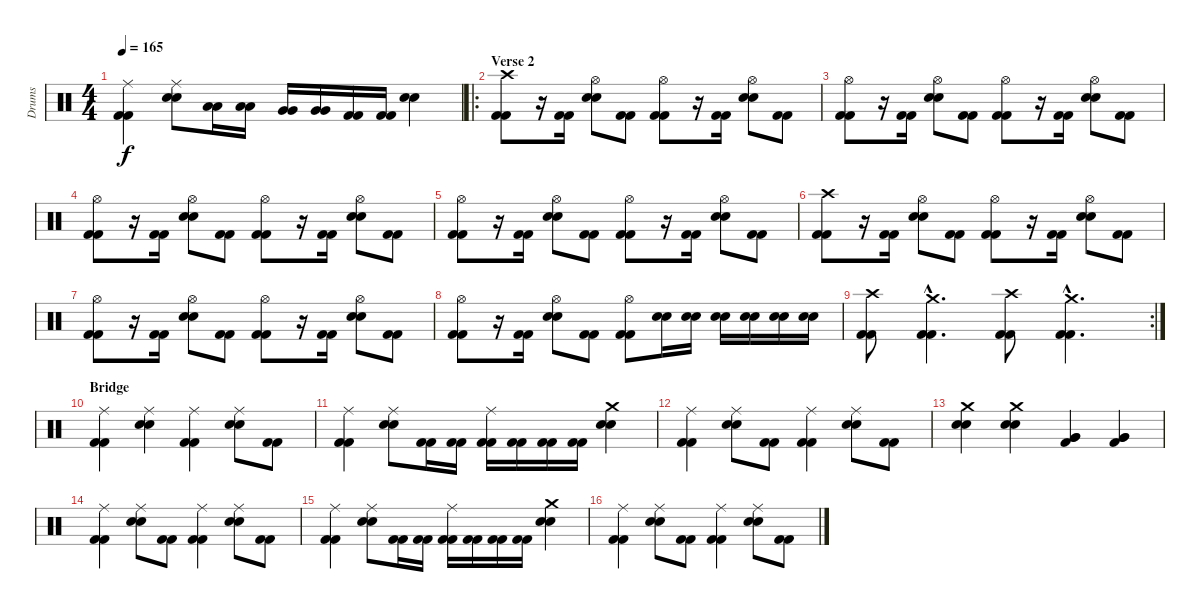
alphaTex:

\track ("Drums" "Drums") {instrument percussion}
\staff {score}
\articulation defaults
\ts (4 4)
\tempo 165
\clef neutral
\ks c
("Ride (middle)" "Kick (hit) 2" "Kick (hit) 2").4{dy f} ("Ride (middle)" "Snare (hit) 2" "Snare (hit) 2").8 ("Low Tom (hit)" "Low Tom (hit)").16 ("Low Tom (hit)" "Low Tom (hit)").16 ("Very Low Tom (hit)" "Very Low Tom (hit)").16 ("Very Low Tom (hit)" "Very Low Tom (hit)").16 ("Kick (hit) 2" "Kick (hit) 2").16 ("Kick (hit) 2" "Kick (hit) 2").16 ("Snare (hit) 2" "Snare (hit) 2").4 |
\ro
\section ("" "Verse 2")
("Crash high (hit)" "Kick (hit) 2" "Kick (hit) 2").8 r.16 ("Kick (hit) 2" "Kick (hit) 2").16 ("Hi-Hat (open)" "Snare (hit) 2" "Snare (hit) 2").8 ("Kick (hit) 2" "Kick (hit) 2").8 ("Hi-Hat (open)" "Kick (hit) 2" "Kick (hit) 2").8 r.16 ("Kick (hit) 2" "Kick (hit) 2").16 ("Hi-Hat (open)" "Snare (hit) 2" "Snare (hit) 2").8 ("Kick (hit) 2" "Kick (hit) 2").8 |
("Hi-Hat (open)" "Kick (hit) 2" "Kick (hit) 2").8 r.16 ("Kick (hit) 2" "Kick (hit) 2").16 ("Hi-Hat (open)" "Snare (hit) 2" "Snare (hit) 2").8 ("Kick (hit) 2" "Kick (hit) 2").8 ("Hi-Hat (open)" "Kick (hit) 2" "Kick (hit) 2").8 r.16 ("Kick (hit) 2" "Kick (hit) 2").16 ("Hi-Hat (open)" "Snare (hit) 2" "Snare (hit) 2").8 ("Kick (hit) 2" "Kick (hit) 2").8 |
("Hi-Hat (open)" "Kick (hit) 2" "Kick (hit) 2").8 r.16 ("Kick (hit) 2" "Kick (hit) 2").16 ("Hi-Hat (open)" "Snare (hit) 2" "Snare (hit) 2").8 ("Kick (hit) 2" "Kick (hit) 2").8 ("Hi-Hat (open)" "Kick (hit) 2" "Kick (hit) 2").8 r.16 ("Kick (hit) 2" "Kick (hit) 2").16 ("Hi-Hat (open)" "Snare (hit) 2" "Snare (hit) 2").8 ("Kick (hit) 2" "Kick (hit) 2").8 |
("Hi-Hat (open)" "Kick (hit) 2" "Kick (hit) 2").8 r.16 ("Kick (hit) 2" "Kick (hit) 2").16 ("Hi-Hat (open)" "Snare (hit) 2" "Snare (hit) 2").8 ("Kick (hit) 2" "Kick (hit) 2").8 ("Hi-Hat (open)" "Kick (hit) 2" "Kick (hit) 2").8 r.16 ("Kick (hit) 2" "Kick (hit) 2").16 ("Hi-Hat (open)" "Snare (hit) 2" "Snare (hit) 2").8 ("Kick (hit) 2" "Kick (hit) 2").8 |
("Crash high (hit)" "Kick (hit) 2" "Kick (hit) 2").8 r.16 ("Kick (hit) 2" "Kick (hit) 2").16 ("Hi-Hat (open)" "Snare (hit) 2" "Snare (hit) 2").8 ("Kick (hit) 2" "Kick (hit) 2").8 ("Hi-Hat (open)" "Kick (hit) 2" "Kick (hit) 2").8 r.16 ("Kick (hit) 2" "Kick (hit) 2").16 ("Hi-Hat (open)" "Snare (hit) 2" "Snare (hit) 2").8 ("Kick (hit) 2" "Kick (hit) 2").8 |
("Hi-Hat (open)" "Kick (hit) 2" "Kick (hit) 2").8 r.16 ("Kick (hit) 2" "Kick (hit) 2").16 ("Hi-Hat (open)" "Snare (hit) 2" "Snare (hit) 2").8 ("Kick (hit) 2" "Kick (hit) 2").8 ("Hi-Hat (open)" "Kick (hit) 2" "Kick (hit) 2").8 r.16 ("Kick (hit) 2" "Kick (hit) 2").16 ("Hi-Hat (open)" "Snare (hit) 2" "Snare (hit) 2").8 ("Kick (hit) 2" "Kick (hit) 2").8 |
("Hi-Hat (open)" "Kick (hit) 2" "Kick (hit) 2").8 r.16 ("Kick (hit) 2" "Kick (hit) 2").16 ("Hi-Hat (open)" "Snare (hit) 2" "Snare (hit) 2").8 ("Kick (hit) 2" "Kick (hit) 2").8 ("Hi-Hat (open)" "Kick (hit) 2" "Kick (hit) 2").8 ("Snare (hit) 2" "Snare (hit) 2").16 ("Snare (hit) 2" "Snare (hit) 2").16 ("Snare (hit) 2" "Snare (hit) 2").16 ("Snare (hit) 2" "Snare (hit) 2").16 ("Snare (hit) 2" "Snare (hit) 2").16 ("Snare (hit) 2" "Snare (hit) 2").16 |
\rc 2
("Crash high (hit)" "Kick (hit) 2" "Kick (hit) 2").8 ("Crash medium (hit)"{hac} "Kick (hit) 2"{hac} "Kick (hit) 2"{hac}).4{d} ("Crash high (hit)" "Kick (hit) 2" "Kick (hit) 2").8 ("Crash medium (hit)"{hac} "Kick (hit) 2"{hac} "Kick (hit) 2"{hac}).4{d} |
\section ("" "Bridge")
("Ride (middle)" "Kick (hit) 2" "Kick (hit) 2").4 ("Ride (middle)" "Snare (hit) 2" "Snare (hit) 2").4 ("Ride (middle)" "Kick (hit) 2" "Kick (hit) 2").4 ("Ride (middle)" "Snare (hit) 2" "Snare (hit) 2").8 ("Kick (hit) 2" "Kick (hit) 2").8 |
("Ride (middle)" "Kick (hit) 2" "Kick (hit) 2").4 ("Ride (middle)" "Snare (hit) 2" "Snare (hit) 2").8 ("Kick (hit) 2" "Kick (hit) 2").16 ("Kick (hit) 2" "Kick (hit) 2").16 ("Ride (middle)" "Kick (hit) 2" "Kick (hit) 2").16 ("Kick (hit) 2" "Kick (hit) 2").16 ("Kick (hit) 2" "Kick (hit) 2").16 ("Kick (hit) 2" "Kick (hit) 2").16 ("Crash medium (hit)" "Snare (hit) 2" "Snare (hit) 2").4 |
("Ride (middle)" "Kick (hit) 2" "Kick (hit) 2").4 ("Ride (middle)" "Snare (hit) 2" "Snare (hit) 2").8 ("Kick (hit) 2" "Kick (hit) 2").8 ("Ride (middle)" "Kick (hit) 2" "Kick (hit) 2").4 ("Ride (middle)" "Snare (hit) 2" "Snare (hit) 2").8 ("Kick (hit) 2" "Kick (hit) 2").8 |
("Crash medium (hit)" "Snare (hit) 2" "Snare (hit) 2").4 ("Crash medium (hit)" "Snare (hit) 2" "Snare (hit) 2").4 ("Very Low Tom (hit)" "Very Low Tom (hit)" "Kick (hit) 2").4 ("Very Low Tom (hit)" "Very Low Tom (hit)" "Kick (hit) 2").4 |
("Ride (middle)" "Kick (hit) 2" "Kick (hit) 2").4 ("Ride (middle)" "Snare (hit) 2" "Snare (hit) 2").8 ("Kick (hit) 2" "Kick (hit) 2").8 ("Ride (middle)" "Kick (hit) 2" "Kick (hit) 2").4 ("Ride (middle)" "Snare (hit) 2" "Snare (hit) 2").8 ("Kick (hit) 2" "Kick (hit) 2").8 |
("Ride (middle)" "Kick (hit) 2" "Kick (hit) 2").4 ("Ride (middle)" "Snare (hit) 2" "Snare (hit) 2").8 ("Kick (hit) 2" "Kick (hit) 2").16 ("Kick (hit) 2" "Kick (hit) 2").16 ("Ride (middle)" "Kick (hit) 2" "Kick (hit) 2").16 ("Kick (hit) 2" "Kick (hit) 2").16 ("Kick (hit) 2" "Kick (hit) 2").16 ("Kick (hit) 2" "Kick (hit) 2").16 ("Crash medium (hit)" "Snare (hit) 2" "Snare (hit) 2").4 |
("Ride (middle)" "Kick (hit) 2" "Kick (hit) 2").4 ("Ride (middle)" "Snare (hit) 2" "Snare (hit) 2").8 ("Kick (hit) 2" "Kick (hit) 2").8 ("Ride (middle)" "Kick (hit) 2" "Kick (hit) 2").4 ("Ride (middle)" "Snare (hit) 2" "Snare (hit) 2").8 ("Kick (hit) 2" "Kick (hit) 2").8
